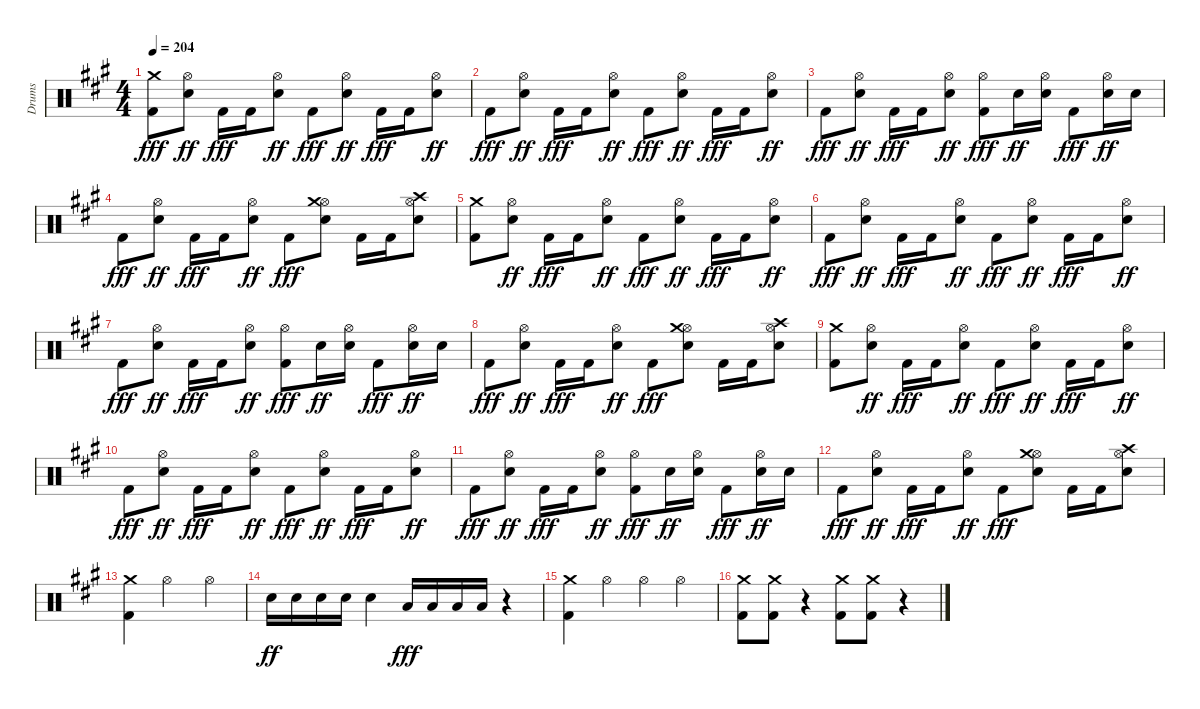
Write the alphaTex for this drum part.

\track ("Drums" "Drums") {instrument percussion}
\staff {score}
\articulation defaults
\ts (4 4)
\tempo 204
\clef neutral
\ks a
("Kick (hit) 2" "Crash medium (hit)").8{dy fff} ("Electric Snare (hit)" "Hi-Hat (open)").8{dy ff} "Kick (hit) 2".16{dy fff} "Kick (hit) 2".16 ("Electric Snare (hit)" "Hi-Hat (open)").8{dy ff} "Kick (hit) 2".8{dy fff} ("Electric Snare (hit)" "Hi-Hat (open)").8{dy ff} "Kick (hit) 2".16{dy fff} "Kick (hit) 2".16 ("Electric Snare (hit)" "Hi-Hat (open)").8{dy ff} |
"Kick (hit) 2".8{dy fff} ("Electric Snare (hit)" "Hi-Hat (open)").8{dy ff} "Kick (hit) 2".16{dy fff} "Kick (hit) 2".16 ("Electric Snare (hit)" "Hi-Hat (open)").8{dy ff} "Kick (hit) 2".8{dy fff} ("Electric Snare (hit)" "Hi-Hat (open)").8{dy ff} "Kick (hit) 2".16{dy fff} "Kick (hit) 2".16 ("Electric Snare (hit)" "Hi-Hat (open)").8{dy ff} |
"Kick (hit) 2".8{dy fff} ("Electric Snare (hit)" "Hi-Hat (open)").8{dy ff} "Kick (hit) 2".16{dy fff} "Kick (hit) 2".16 ("Electric Snare (hit)" "Hi-Hat (open)").8{dy ff} ("Kick (hit) 2" "Hi-Hat (open)").8{dy fff} "Electric Snare (hit)".16{dy ff} ("Electric Snare (hit)" "Hi-Hat (open)").16 "Kick (hit) 2".8{dy fff} ("Electric Snare (hit)" "Hi-Hat (open)").16{dy ff} "Electric Snare (hit)".16 |
"Kick (hit) 2".8{dy fff} ("Electric Snare (hit)" "Hi-Hat (open)").8{dy ff} "Kick (hit) 2".16{dy fff} "Kick (hit) 2".16 ("Electric Snare (hit)" "Hi-Hat (open)").8{dy ff} "Kick (hit) 2".8{dy fff} ("Electric Snare (hit)" "Hi-Hat (open)" "Crash medium (hit)").8 "Kick (hit) 2".16 "Kick (hit) 2".16 ("Electric Snare (hit)" "Hi-Hat (open)" "Crash high (hit)").8 |
("Kick (hit) 2" "Crash medium (hit)").8 ("Electric Snare (hit)" "Hi-Hat (open)").8{dy ff} "Kick (hit) 2".16{dy fff} "Kick (hit) 2".16 ("Electric Snare (hit)" "Hi-Hat (open)").8{dy ff} "Kick (hit) 2".8{dy fff} ("Electric Snare (hit)" "Hi-Hat (open)").8{dy ff} "Kick (hit) 2".16{dy fff} "Kick (hit) 2".16 ("Electric Snare (hit)" "Hi-Hat (open)").8{dy ff} |
"Kick (hit) 2".8{dy fff} ("Electric Snare (hit)" "Hi-Hat (open)").8{dy ff} "Kick (hit) 2".16{dy fff} "Kick (hit) 2".16 ("Electric Snare (hit)" "Hi-Hat (open)").8{dy ff} "Kick (hit) 2".8{dy fff} ("Electric Snare (hit)" "Hi-Hat (open)").8{dy ff} "Kick (hit) 2".16{dy fff} "Kick (hit) 2".16 ("Electric Snare (hit)" "Hi-Hat (open)").8{dy ff} |
"Kick (hit) 2".8{dy fff} ("Electric Snare (hit)" "Hi-Hat (open)").8{dy ff} "Kick (hit) 2".16{dy fff} "Kick (hit) 2".16 ("Electric Snare (hit)" "Hi-Hat (open)").8{dy ff} ("Kick (hit) 2" "Hi-Hat (open)").8{dy fff} "Electric Snare (hit)".16{dy ff} ("Electric Snare (hit)" "Hi-Hat (open)").16 "Kick (hit) 2".8{dy fff} ("Electric Snare (hit)" "Hi-Hat (open)").16{dy ff} "Electric Snare (hit)".16 |
"Kick (hit) 2".8{dy fff} ("Electric Snare (hit)" "Hi-Hat (open)").8{dy ff} "Kick (hit) 2".16{dy fff} "Kick (hit) 2".16 ("Electric Snare (hit)" "Hi-Hat (open)").8{dy ff} "Kick (hit) 2".8{dy fff} ("Electric Snare (hit)" "Hi-Hat (open)" "Crash medium (hit)").8 "Kick (hit) 2".16 "Kick (hit) 2".16 ("Electric Snare (hit)" "Hi-Hat (open)" "Crash high (hit)").8 |
("Kick (hit) 2" "Crash medium (hit)").8 ("Electric Snare (hit)" "Hi-Hat (open)").8{dy ff} "Kick (hit) 2".16{dy fff} "Kick (hit) 2".16 ("Electric Snare (hit)" "Hi-Hat (open)").8{dy ff} "Kick (hit) 2".8{dy fff} ("Electric Snare (hit)" "Hi-Hat (open)").8{dy ff} "Kick (hit) 2".16{dy fff} "Kick (hit) 2".16 ("Electric Snare (hit)" "Hi-Hat (open)").8{dy ff} |
"Kick (hit) 2".8{dy fff} ("Electric Snare (hit)" "Hi-Hat (open)").8{dy ff} "Kick (hit) 2".16{dy fff} "Kick (hit) 2".16 ("Electric Snare (hit)" "Hi-Hat (open)").8{dy ff} "Kick (hit) 2".8{dy fff} ("Electric Snare (hit)" "Hi-Hat (open)").8{dy ff} "Kick (hit) 2".16{dy fff} "Kick (hit) 2".16 ("Electric Snare (hit)" "Hi-Hat (open)").8{dy ff} |
"Kick (hit) 2".8{dy fff} ("Electric Snare (hit)" "Hi-Hat (open)").8{dy ff} "Kick (hit) 2".16{dy fff} "Kick (hit) 2".16 ("Electric Snare (hit)" "Hi-Hat (open)").8{dy ff} ("Kick (hit) 2" "Hi-Hat (open)").8{dy fff} "Electric Snare (hit)".16{dy ff} ("Electric Snare (hit)" "Hi-Hat (open)").16 "Kick (hit) 2".8{dy fff} ("Electric Snare (hit)" "Hi-Hat (open)").16{dy ff} "Electric Snare (hit)".16 |
"Kick (hit) 2".8{dy fff} ("Electric Snare (hit)" "Hi-Hat (open)").8{dy ff} "Kick (hit) 2".16{dy fff} "Kick (hit) 2".16 ("Electric Snare (hit)" "Hi-Hat (open)").8{dy ff} "Kick (hit) 2".8{dy fff} ("Electric Snare (hit)" "Hi-Hat (open)" "Crash medium (hit)").8 "Kick (hit) 2".16 "Kick (hit) 2".16 ("Electric Snare (hit)" "Hi-Hat (open)" "Crash high (hit)").8 |
("Kick (hit) 2" "Crash medium (hit)").4 "Hi-Hat (open)".2 "Hi-Hat (open)".4 |
"Electric Snare (hit)".16{dy ff} "Electric Snare (hit)".16 "Electric Snare (hit)".16 "Electric Snare (hit)".16 "Electric Snare (hit)".4 "Low Tom (hit)".16{dy fff} "Low Tom (hit)".16 "Low Tom (hit)".16 "Low Tom (hit)".16 r.4 |
("Kick (hit) 2" "Crash medium (hit)").4 "Hi-Hat (open)".4 "Hi-Hat (open)".4 "Hi-Hat (open)".4 |
("Kick (hit) 2" "Crash medium (hit)").8 ("Kick (hit) 2" "Crash medium (hit)").8 r.4 ("Kick (hit) 2" "Crash medium (hit)").8 ("Kick (hit) 2" "Crash medium (hit)").8 r.4
